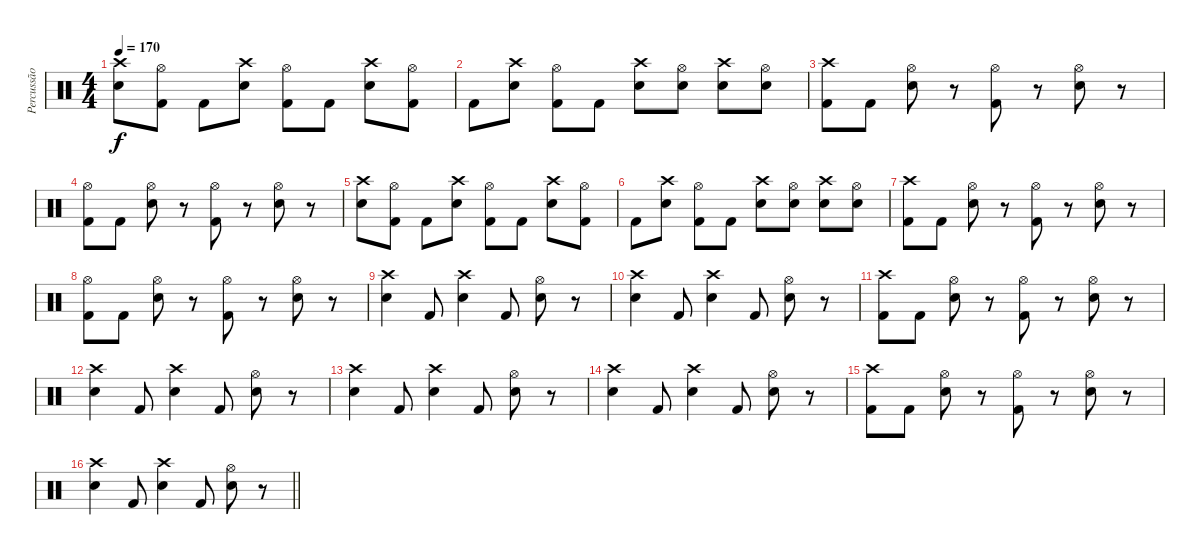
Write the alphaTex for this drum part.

\track ("Percussão" "Percussão") {instrument percussion}
\staff {score}
\articulation defaults
\ts (4 4)
\tempo 170
\clef neutral
\ks c
("Crash high (hit)" "Snare (hit) 2").8{dy f} ("Hi-Hat (open)" "Kick (hit) 2").8 "Kick (hit) 2".8 ("Crash high (hit)" "Snare (hit) 2").8 ("Hi-Hat (open)" "Kick (hit) 2").8 "Kick (hit) 2".8 ("Crash high (hit)" "Snare (hit) 2").8 ("Hi-Hat (open)" "Kick (hit) 2").8 |
"Kick (hit) 2".8 ("Crash high (hit)" "Snare (hit) 2").8 ("Hi-Hat (open)" "Kick (hit) 2").8 "Kick (hit) 2".8 ("Crash high (hit)" "Snare (hit) 2").8 ("Hi-Hat (open)" "Snare (hit) 2").8 ("Crash high (hit)" "Snare (hit) 2").8 ("Hi-Hat (open)" "Snare (hit) 2").8 |
("Crash high (hit)" "Kick (hit) 2").8 "Kick (hit) 2".8 ("Hi-Hat (open)" "Snare (hit) 2").8 r.8 ("Hi-Hat (open)" "Kick (hit) 2").8 r.8 ("Hi-Hat (open)" "Snare (hit) 2").8 r.8 |
("Hi-Hat (open)" "Kick (hit) 2").8 "Kick (hit) 2".8 ("Hi-Hat (open)" "Snare (hit) 2").8 r.8 ("Hi-Hat (open)" "Kick (hit) 2").8 r.8 ("Hi-Hat (open)" "Snare (hit) 2").8 r.8 |
("Crash high (hit)" "Snare (hit) 2").8 ("Hi-Hat (open)" "Kick (hit) 2").8 "Kick (hit) 2".8 ("Crash high (hit)" "Snare (hit) 2").8 ("Hi-Hat (open)" "Kick (hit) 2").8 "Kick (hit) 2".8 ("Crash high (hit)" "Snare (hit) 2").8 ("Hi-Hat (open)" "Kick (hit) 2").8 |
"Kick (hit) 2".8 ("Crash high (hit)" "Snare (hit) 2").8 ("Hi-Hat (open)" "Kick (hit) 2").8 "Kick (hit) 2".8 ("Crash high (hit)" "Snare (hit) 2").8 ("Hi-Hat (open)" "Snare (hit) 2").8 ("Crash high (hit)" "Snare (hit) 2").8 ("Hi-Hat (open)" "Snare (hit) 2").8 |
("Crash high (hit)" "Kick (hit) 2").8 "Kick (hit) 2".8 ("Hi-Hat (open)" "Snare (hit) 2").8 r.8 ("Hi-Hat (open)" "Kick (hit) 2").8 r.8 ("Hi-Hat (open)" "Snare (hit) 2").8 r.8 |
("Hi-Hat (open)" "Kick (hit) 2").8 "Kick (hit) 2".8 ("Hi-Hat (open)" "Snare (hit) 2").8 r.8 ("Hi-Hat (open)" "Kick (hit) 2").8 r.8 ("Hi-Hat (open)" "Snare (hit) 2").8 r.8 |
("Crash high (hit)" "Snare (hit) 2").4 "Kick (hit) 2".8 ("Crash high (hit)" "Snare (hit) 2").4 "Kick (hit) 2".8 ("Hi-Hat (open)" "Snare (hit) 2").8 r.8 |
("Crash high (hit)" "Snare (hit) 2").4 "Kick (hit) 2".8 ("Crash high (hit)" "Snare (hit) 2").4 "Kick (hit) 2".8 ("Hi-Hat (open)" "Snare (hit) 2").8 r.8 |
("Crash high (hit)" "Kick (hit) 2").8 "Kick (hit) 2".8 ("Hi-Hat (open)" "Snare (hit) 2").8 r.8 ("Hi-Hat (open)" "Kick (hit) 2").8 r.8 ("Hi-Hat (open)" "Snare (hit) 2").8 r.8 |
("Crash high (hit)" "Snare (hit) 2").4 "Kick (hit) 2".8 ("Crash high (hit)" "Snare (hit) 2").4 "Kick (hit) 2".8 ("Hi-Hat (open)" "Snare (hit) 2").8 r.8 |
("Crash high (hit)" "Snare (hit) 2").4 "Kick (hit) 2".8 ("Crash high (hit)" "Snare (hit) 2").4 "Kick (hit) 2".8 ("Hi-Hat (open)" "Snare (hit) 2").8 r.8 |
("Crash high (hit)" "Snare (hit) 2").4 "Kick (hit) 2".8 ("Crash high (hit)" "Snare (hit) 2").4 "Kick (hit) 2".8 ("Hi-Hat (open)" "Snare (hit) 2").8 r.8 |
("Crash high (hit)" "Kick (hit) 2").8 "Kick (hit) 2".8 ("Hi-Hat (open)" "Snare (hit) 2").8 r.8 ("Hi-Hat (open)" "Kick (hit) 2").8 r.8 ("Hi-Hat (open)" "Snare (hit) 2").8 r.8 |
\barLineRight lightlight
("Crash high (hit)" "Snare (hit) 2").4 "Kick (hit) 2".8 ("Crash high (hit)" "Snare (hit) 2").4 "Kick (hit) 2".8 ("Hi-Hat (open)" "Snare (hit) 2").8 r.8
